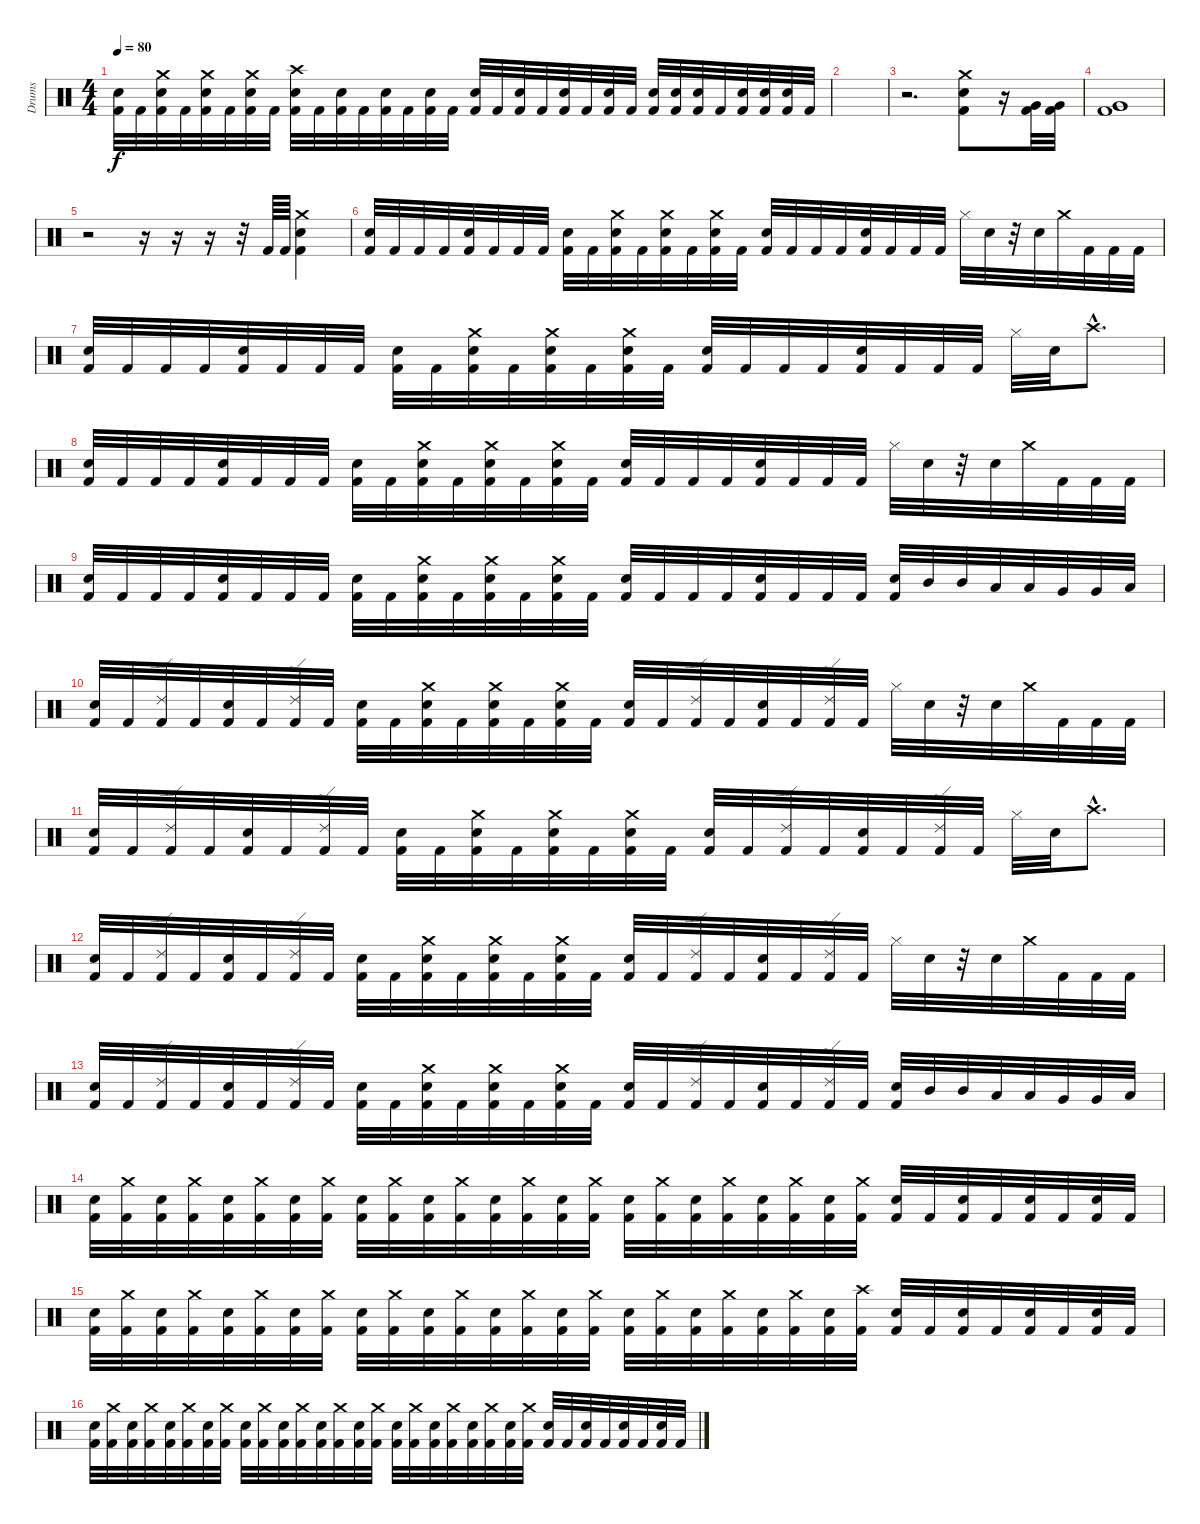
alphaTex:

\track ("Drums" "Drums") {instrument percussion}
\staff {score}
\articulation defaults
\ts (4 4)
\tempo 80
\clef neutral
\ks c
("Kick (hit) 2" "Snare (hit) 2").32{dy f} "Kick (hit) 2".32 ("Kick (hit) 2" "Snare (hit) 2" "Crash medium (hit)").32 "Kick (hit) 2".32 ("Kick (hit) 2" "Snare (hit) 2" "Crash medium (hit)").32 "Kick (hit) 2".32 ("Kick (hit) 2" "Snare (hit) 2" "Crash medium (hit)").32 "Kick (hit) 2".32 ("Kick (hit) 2" "Snare (hit) 2" "Crash high (hit)").32 "Kick (hit) 2".32 ("Kick (hit) 2" "Snare (hit) 2").32 "Kick (hit) 2".32 ("Kick (hit) 2" "Snare (hit) 2").32 "Kick (hit) 2".32 ("Kick (hit) 2" "Snare (hit) 2").32 "Kick (hit) 2".32 ("Kick (hit) 2" "Snare (hit) 2").32 "Kick (hit) 2".32 ("Kick (hit) 2" "Snare (hit) 2").32 "Kick (hit) 2".32 ("Kick (hit) 2" "Snare (hit) 2").32 "Kick (hit) 2".32 ("Kick (hit) 2" "Snare (hit) 2").32 "Kick (hit) 2".32 ("Kick (hit) 2" "Snare (hit) 2").32 ("Kick (hit) 2" "Snare (hit) 2").32 ("Kick (hit) 2" "Snare (hit) 2").32 "Kick (hit) 2".32 ("Kick (hit) 2" "Snare (hit) 2").32 ("Kick (hit) 2" "Snare (hit) 2").32 ("Kick (hit) 2" "Snare (hit) 2").32 "Kick (hit) 2".32 |
|
r.2{d} ("Kick (hit) 2" "Snare (hit) 2" "Crash medium (hit)").8 r.16 ("Kick (hit) 2" "Very Low Tom (hit)").32 ("Kick (hit) 2" "Very Low Tom (hit)").32 |
("Very Low Tom (hit)" "Very Low Tom (hit)" "Kick (hit) 2").1 |
r.2 r.16 r.16 r.16 r.32 "Kick (hit) 2".64 "Kick (hit) 2".64 ("Crash medium (hit)" "Snare (hit) 2" "Kick (hit) 2").4 |
("Kick (hit) 2" "Snare (hit) 2").32 "Kick (hit) 2".32 "Kick (hit) 2".32 "Kick (hit) 2".32 ("Kick (hit) 2" "Snare (hit) 2").32 "Kick (hit) 2".32 "Kick (hit) 2".32 "Kick (hit) 2".32 ("Kick (hit) 2" "Snare (hit) 2").32 "Kick (hit) 2".32 ("Kick (hit) 2" "Snare (hit) 2" "Crash medium (hit)").32 "Kick (hit) 2".32 ("Kick (hit) 2" "Snare (hit) 2" "Crash medium (hit)").32 "Kick (hit) 2".32 ("Kick (hit) 2" "Snare (hit) 2" "Crash medium (hit)").32 "Kick (hit) 2".32 ("Kick (hit) 2" "Snare (hit) 2").32 "Kick (hit) 2".32 "Kick (hit) 2".32 "Kick (hit) 2".32 ("Kick (hit) 2" "Snare (hit) 2").32 "Kick (hit) 2".32 "Kick (hit) 2".32 "Kick (hit) 2".32 "Hi-Hat (closed)".32 "Snare (hit) 2".32 r.32 "Snare (hit) 2".32 "Crash medium (hit)".32 "Kick (hit) 2".32 "Kick (hit) 2".32 "Kick (hit) 2".32 |
("Kick (hit) 2" "Snare (hit) 2").32 "Kick (hit) 2".32 "Kick (hit) 2".32 "Kick (hit) 2".32 ("Kick (hit) 2" "Snare (hit) 2").32 "Kick (hit) 2".32 "Kick (hit) 2".32 "Kick (hit) 2".32 ("Kick (hit) 2" "Snare (hit) 2").32 "Kick (hit) 2".32 ("Kick (hit) 2" "Snare (hit) 2" "Crash medium (hit)").32 "Kick (hit) 2".32 ("Kick (hit) 2" "Snare (hit) 2" "Crash medium (hit)").32 "Kick (hit) 2".32 ("Kick (hit) 2" "Snare (hit) 2" "Crash medium (hit)").32 "Kick (hit) 2".32 ("Kick (hit) 2" "Snare (hit) 2").32 "Kick (hit) 2".32 "Kick (hit) 2".32 "Kick (hit) 2".32 ("Kick (hit) 2" "Snare (hit) 2").32 "Kick (hit) 2".32 "Kick (hit) 2".32 "Kick (hit) 2".32 "Hi-Hat (closed)".32 "Snare (hit) 2".32 "Crash high (hit)"{hac}.8{d} |
("Kick (hit) 2" "Snare (hit) 2").32 "Kick (hit) 2".32 "Kick (hit) 2".32 "Kick (hit) 2".32 ("Kick (hit) 2" "Snare (hit) 2").32 "Kick (hit) 2".32 "Kick (hit) 2".32 "Kick (hit) 2".32 ("Kick (hit) 2" "Snare (hit) 2").32 "Kick (hit) 2".32 ("Kick (hit) 2" "Snare (hit) 2" "Crash medium (hit)").32 "Kick (hit) 2".32 ("Kick (hit) 2" "Snare (hit) 2" "Crash medium (hit)").32 "Kick (hit) 2".32 ("Kick (hit) 2" "Snare (hit) 2" "Crash medium (hit)").32 "Kick (hit) 2".32 ("Kick (hit) 2" "Snare (hit) 2").32 "Kick (hit) 2".32 "Kick (hit) 2".32 "Kick (hit) 2".32 ("Kick (hit) 2" "Snare (hit) 2").32 "Kick (hit) 2".32 "Kick (hit) 2".32 "Kick (hit) 2".32 "Hi-Hat (closed)".32 "Snare (hit) 2".32 r.32 "Snare (hit) 2".32 "Crash medium (hit)".32 "Kick (hit) 2".32 "Kick (hit) 2".32 "Kick (hit) 2".32 |
("Kick (hit) 2" "Snare (hit) 2").32 "Kick (hit) 2".32 "Kick (hit) 2".32 "Kick (hit) 2".32 ("Kick (hit) 2" "Snare (hit) 2").32 "Kick (hit) 2".32 "Kick (hit) 2".32 "Kick (hit) 2".32 ("Kick (hit) 2" "Snare (hit) 2").32 "Kick (hit) 2".32 ("Kick (hit) 2" "Snare (hit) 2" "Crash medium (hit)").32 "Kick (hit) 2".32 ("Kick (hit) 2" "Snare (hit) 2" "Crash medium (hit)").32 "Kick (hit) 2".32 ("Kick (hit) 2" "Snare (hit) 2" "Crash medium (hit)").32 "Kick (hit) 2".32 ("Kick (hit) 2" "Snare (hit) 2").32 "Kick (hit) 2".32 "Kick (hit) 2".32 "Kick (hit) 2".32 ("Kick (hit) 2" "Snare (hit) 2").32 "Kick (hit) 2".32 "Kick (hit) 2".32 "Kick (hit) 2".32 ("Kick (hit) 2" "Snare (hit) 2").32 "Mid Tom (hit)".32 "Mid Tom (hit)".32 "Low Tom (hit)".32 "Low Tom (hit)".32 "Very Low Tom (hit)".32 "Very Low Tom (hit)".32 "Low Floor Tom (hit)".32 |
("Kick (hit) 2" "Snare (hit) 2").32 "Kick (hit) 2".32 ("Kick (hit) 2" "Ride (edge) 2").32 "Kick (hit) 2".32 ("Kick (hit) 2" "Snare (hit) 2").32 "Kick (hit) 2".32 ("Kick (hit) 2" "Ride (edge) 2").32 "Kick (hit) 2".32 ("Kick (hit) 2" "Snare (hit) 2").32 "Kick (hit) 2".32 ("Kick (hit) 2" "Snare (hit) 2" "Crash medium (hit)").32 "Kick (hit) 2".32 ("Kick (hit) 2" "Snare (hit) 2" "Crash medium (hit)").32 "Kick (hit) 2".32 ("Kick (hit) 2" "Snare (hit) 2" "Crash medium (hit)").32 "Kick (hit) 2".32 ("Kick (hit) 2" "Snare (hit) 2").32 "Kick (hit) 2".32 ("Kick (hit) 2" "Ride (edge) 2").32 "Kick (hit) 2".32 ("Kick (hit) 2" "Snare (hit) 2").32 "Kick (hit) 2".32 ("Kick (hit) 2" "Ride (edge) 2").32 "Kick (hit) 2".32 "Hi-Hat (closed)".32 "Snare (hit) 2".32 r.32 "Snare (hit) 2".32 "Crash medium (hit)".32 "Kick (hit) 2".32 "Kick (hit) 2".32 "Kick (hit) 2".32 |
("Kick (hit) 2" "Snare (hit) 2").32 "Kick (hit) 2".32 ("Kick (hit) 2" "Ride (edge) 2").32 "Kick (hit) 2".32 ("Kick (hit) 2" "Snare (hit) 2").32 "Kick (hit) 2".32 ("Kick (hit) 2" "Ride (edge) 2").32 "Kick (hit) 2".32 ("Kick (hit) 2" "Snare (hit) 2").32 "Kick (hit) 2".32 ("Kick (hit) 2" "Snare (hit) 2" "Crash medium (hit)").32 "Kick (hit) 2".32 ("Kick (hit) 2" "Snare (hit) 2" "Crash medium (hit)").32 "Kick (hit) 2".32 ("Kick (hit) 2" "Snare (hit) 2" "Crash medium (hit)").32 "Kick (hit) 2".32 ("Kick (hit) 2" "Snare (hit) 2").32 "Kick (hit) 2".32 ("Kick (hit) 2" "Ride (edge) 2").32 "Kick (hit) 2".32 ("Kick (hit) 2" "Snare (hit) 2").32 "Kick (hit) 2".32 ("Kick (hit) 2" "Ride (edge) 2").32 "Kick (hit) 2".32 "Hi-Hat (closed)".32 "Snare (hit) 2".32 "Crash high (hit)"{hac}.8{d} |
("Kick (hit) 2" "Snare (hit) 2").32 "Kick (hit) 2".32 ("Kick (hit) 2" "Ride (edge) 2").32 "Kick (hit) 2".32 ("Kick (hit) 2" "Snare (hit) 2").32 "Kick (hit) 2".32 ("Kick (hit) 2" "Ride (edge) 2").32 "Kick (hit) 2".32 ("Kick (hit) 2" "Snare (hit) 2").32 "Kick (hit) 2".32 ("Kick (hit) 2" "Snare (hit) 2" "Crash medium (hit)").32 "Kick (hit) 2".32 ("Kick (hit) 2" "Snare (hit) 2" "Crash medium (hit)").32 "Kick (hit) 2".32 ("Kick (hit) 2" "Snare (hit) 2" "Crash medium (hit)").32 "Kick (hit) 2".32 ("Kick (hit) 2" "Snare (hit) 2").32 "Kick (hit) 2".32 ("Kick (hit) 2" "Ride (edge) 2").32 "Kick (hit) 2".32 ("Kick (hit) 2" "Snare (hit) 2").32 "Kick (hit) 2".32 ("Kick (hit) 2" "Ride (edge) 2").32 "Kick (hit) 2".32 "Hi-Hat (closed)".32 "Snare (hit) 2".32 r.32 "Snare (hit) 2".32 "Crash medium (hit)".32 "Kick (hit) 2".32 "Kick (hit) 2".32 "Kick (hit) 2".32 |
("Kick (hit) 2" "Snare (hit) 2").32 "Kick (hit) 2".32 ("Kick (hit) 2" "Ride (edge) 2").32 "Kick (hit) 2".32 ("Kick (hit) 2" "Snare (hit) 2").32 "Kick (hit) 2".32 ("Kick (hit) 2" "Ride (edge) 2").32 "Kick (hit) 2".32 ("Kick (hit) 2" "Snare (hit) 2").32 "Kick (hit) 2".32 ("Kick (hit) 2" "Snare (hit) 2" "Crash medium (hit)").32 "Kick (hit) 2".32 ("Kick (hit) 2" "Snare (hit) 2" "Crash medium (hit)").32 "Kick (hit) 2".32 ("Kick (hit) 2" "Snare (hit) 2" "Crash medium (hit)").32 "Kick (hit) 2".32 ("Kick (hit) 2" "Snare (hit) 2").32 "Kick (hit) 2".32 ("Kick (hit) 2" "Ride (edge) 2").32 "Kick (hit) 2".32 ("Kick (hit) 2" "Snare (hit) 2").32 "Kick (hit) 2".32 ("Kick (hit) 2" "Ride (edge) 2").32 "Kick (hit) 2".32 ("Kick (hit) 2" "Snare (hit) 2").32 "Mid Tom (hit)".32 "Mid Tom (hit)".32 "Low Tom (hit)".32 "Low Tom (hit)".32 "Very Low Tom (hit)".32 "Very Low Tom (hit)".32 "Low Floor Tom (hit)".32 |
("Kick (hit) 2" "Snare (hit) 2").32 ("Kick (hit) 2" "Crash medium (hit)").32 ("Kick (hit) 2" "Snare (hit) 2").32 ("Kick (hit) 2" "Crash medium (hit)").32 ("Kick (hit) 2" "Snare (hit) 2").32 ("Kick (hit) 2" "Crash medium (hit)").32 ("Kick (hit) 2" "Snare (hit) 2").32 ("Kick (hit) 2" "Crash medium (hit)").32 ("Kick (hit) 2" "Snare (hit) 2").32 ("Kick (hit) 2" "Crash medium (hit)").32 ("Kick (hit) 2" "Snare (hit) 2").32 ("Kick (hit) 2" "Crash medium (hit)").32 ("Kick (hit) 2" "Snare (hit) 2").32 ("Kick (hit) 2" "Crash medium (hit)").32 ("Kick (hit) 2" "Snare (hit) 2").32 ("Kick (hit) 2" "Crash medium (hit)").32 ("Kick (hit) 2" "Snare (hit) 2").32 ("Kick (hit) 2" "Crash medium (hit)").32 ("Kick (hit) 2" "Snare (hit) 2").32 ("Kick (hit) 2" "Crash medium (hit)").32 ("Kick (hit) 2" "Snare (hit) 2").32 ("Kick (hit) 2" "Crash medium (hit)").32 ("Kick (hit) 2" "Snare (hit) 2").32 ("Kick (hit) 2" "Crash medium (hit)").32 ("Kick (hit) 2" "Snare (hit) 2").32 "Kick (hit) 2".32 ("Kick (hit) 2" "Snare (hit) 2").32 "Kick (hit) 2".32 ("Kick (hit) 2" "Snare (hit) 2").32 "Kick (hit) 2".32 ("Kick (hit) 2" "Snare (hit) 2").32 "Kick (hit) 2".32 |
("Kick (hit) 2" "Snare (hit) 2").32 ("Kick (hit) 2" "Crash medium (hit)").32 ("Kick (hit) 2" "Snare (hit) 2").32 ("Kick (hit) 2" "Crash medium (hit)").32 ("Kick (hit) 2" "Snare (hit) 2").32 ("Kick (hit) 2" "Crash medium (hit)").32 ("Kick (hit) 2" "Snare (hit) 2").32 ("Kick (hit) 2" "Crash medium (hit)").32 ("Kick (hit) 2" "Snare (hit) 2").32 ("Kick (hit) 2" "Crash medium (hit)").32 ("Kick (hit) 2" "Snare (hit) 2").32 ("Kick (hit) 2" "Crash medium (hit)").32 ("Kick (hit) 2" "Snare (hit) 2").32 ("Kick (hit) 2" "Crash medium (hit)").32 ("Kick (hit) 2" "Snare (hit) 2").32 ("Kick (hit) 2" "Crash medium (hit)").32 ("Kick (hit) 2" "Snare (hit) 2").32 ("Kick (hit) 2" "Crash medium (hit)").32 ("Kick (hit) 2" "Snare (hit) 2").32 ("Kick (hit) 2" "Crash medium (hit)").32 ("Kick (hit) 2" "Snare (hit) 2").32 ("Kick (hit) 2" "Crash medium (hit)").32 ("Kick (hit) 2" "Snare (hit) 2").32 ("Kick (hit) 2" "Crash high (hit)").32 ("Kick (hit) 2" "Snare (hit) 2").32 "Kick (hit) 2".32 ("Kick (hit) 2" "Snare (hit) 2").32 "Kick (hit) 2".32 ("Kick (hit) 2" "Snare (hit) 2").32 "Kick (hit) 2".32 ("Kick (hit) 2" "Snare (hit) 2").32 "Kick (hit) 2".32 |
("Kick (hit) 2" "Snare (hit) 2").32 ("Kick (hit) 2" "Crash medium (hit)").32 ("Kick (hit) 2" "Snare (hit) 2").32 ("Kick (hit) 2" "Crash medium (hit)").32 ("Kick (hit) 2" "Snare (hit) 2").32 ("Kick (hit) 2" "Crash medium (hit)").32 ("Kick (hit) 2" "Snare (hit) 2").32 ("Kick (hit) 2" "Crash medium (hit)").32 ("Kick (hit) 2" "Snare (hit) 2").32 ("Kick (hit) 2" "Crash medium (hit)").32 ("Kick (hit) 2" "Snare (hit) 2").32 ("Kick (hit) 2" "Crash medium (hit)").32 ("Kick (hit) 2" "Snare (hit) 2").32 ("Kick (hit) 2" "Crash medium (hit)").32 ("Kick (hit) 2" "Snare (hit) 2").32 ("Kick (hit) 2" "Crash medium (hit)").32 ("Kick (hit) 2" "Snare (hit) 2").32 ("Kick (hit) 2" "Crash medium (hit)").32 ("Kick (hit) 2" "Snare (hit) 2").32 ("Kick (hit) 2" "Crash medium (hit)").32 ("Kick (hit) 2" "Snare (hit) 2").32 ("Kick (hit) 2" "Crash medium (hit)").32 ("Kick (hit) 2" "Snare (hit) 2").32 ("Kick (hit) 2" "Crash medium (hit)").32 ("Kick (hit) 2" "Snare (hit) 2").32 "Kick (hit) 2".32 ("Kick (hit) 2" "Snare (hit) 2").32 "Kick (hit) 2".32 ("Kick (hit) 2" "Snare (hit) 2").32 "Kick (hit) 2".32 ("Kick (hit) 2" "Snare (hit) 2").32 "Kick (hit) 2".32
